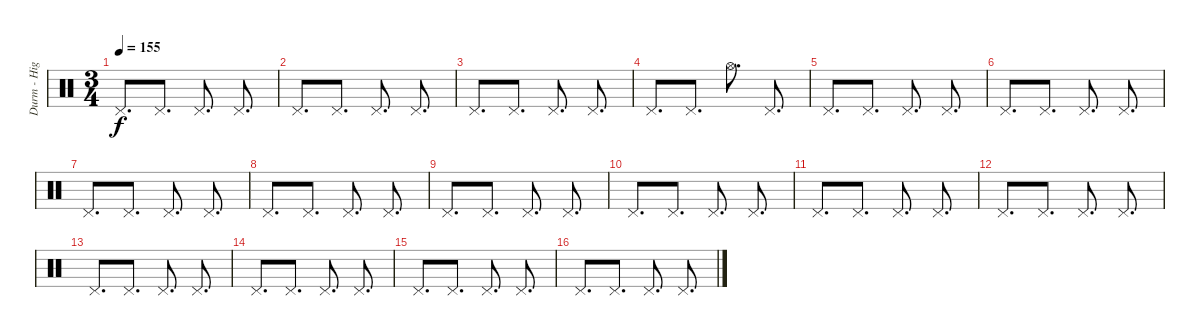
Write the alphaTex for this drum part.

\track ("Durm - High Hat" "Durm - Hig") {instrument percussion}
\staff {score}
\articulation defaults
\ts (3 4)
\tempo 155
\clef neutral
\ks c "Pedal Hi-Hat (hit)".8{d dy f} "Pedal Hi-Hat (hit)".8{d} "Pedal Hi-Hat (hit)".8{d} "Pedal Hi-Hat (hit)".8{d}
|
"Pedal Hi-Hat (hit)".8{d} "Pedal Hi-Hat (hit)".8{d} "Pedal Hi-Hat (hit)".8{d} "Pedal Hi-Hat (hit)".8{d} |
"Pedal Hi-Hat (hit)".8{d} "Pedal Hi-Hat (hit)".8{d} "Pedal Hi-Hat (hit)".8{d} "Pedal Hi-Hat (hit)".8{d} |
"Pedal Hi-Hat (hit)".8{d} "Pedal Hi-Hat (hit)".8{d} "Hi-Hat (open)".8{d} "Pedal Hi-Hat (hit)".8{d} |
"Pedal Hi-Hat (hit)".8{d} "Pedal Hi-Hat (hit)".8{d} "Pedal Hi-Hat (hit)".8{d} "Pedal Hi-Hat (hit)".8{d} |
"Pedal Hi-Hat (hit)".8{d} "Pedal Hi-Hat (hit)".8{d} "Pedal Hi-Hat (hit)".8{d} "Pedal Hi-Hat (hit)".8{d} |
"Pedal Hi-Hat (hit)".8{d} "Pedal Hi-Hat (hit)".8{d} "Pedal Hi-Hat (hit)".8{d} "Pedal Hi-Hat (hit)".8{d} |
"Pedal Hi-Hat (hit)".8{d} "Pedal Hi-Hat (hit)".8{d} "Pedal Hi-Hat (hit)".8{d} "Pedal Hi-Hat (hit)".8{d} |
"Pedal Hi-Hat (hit)".8{d} "Pedal Hi-Hat (hit)".8{d} "Pedal Hi-Hat (hit)".8{d} "Pedal Hi-Hat (hit)".8{d} |
"Pedal Hi-Hat (hit)".8{d} "Pedal Hi-Hat (hit)".8{d} "Pedal Hi-Hat (hit)".8{d} "Pedal Hi-Hat (hit)".8{d} |
"Pedal Hi-Hat (hit)".8{d} "Pedal Hi-Hat (hit)".8{d} "Pedal Hi-Hat (hit)".8{d} "Pedal Hi-Hat (hit)".8{d} |
"Pedal Hi-Hat (hit)".8{d} "Pedal Hi-Hat (hit)".8{d} "Pedal Hi-Hat (hit)".8{d} "Pedal Hi-Hat (hit)".8{d} |
"Pedal Hi-Hat (hit)".8{d} "Pedal Hi-Hat (hit)".8{d} "Pedal Hi-Hat (hit)".8{d} "Pedal Hi-Hat (hit)".8{d} |
"Pedal Hi-Hat (hit)".8{d} "Pedal Hi-Hat (hit)".8{d} "Pedal Hi-Hat (hit)".8{d} "Pedal Hi-Hat (hit)".8{d} |
"Pedal Hi-Hat (hit)".8{d} "Pedal Hi-Hat (hit)".8{d} "Pedal Hi-Hat (hit)".8{d} "Pedal Hi-Hat (hit)".8{d} |
"Pedal Hi-Hat (hit)".8{d} "Pedal Hi-Hat (hit)".8{d} "Pedal Hi-Hat (hit)".8{d} "Pedal Hi-Hat (hit)".8{d}
